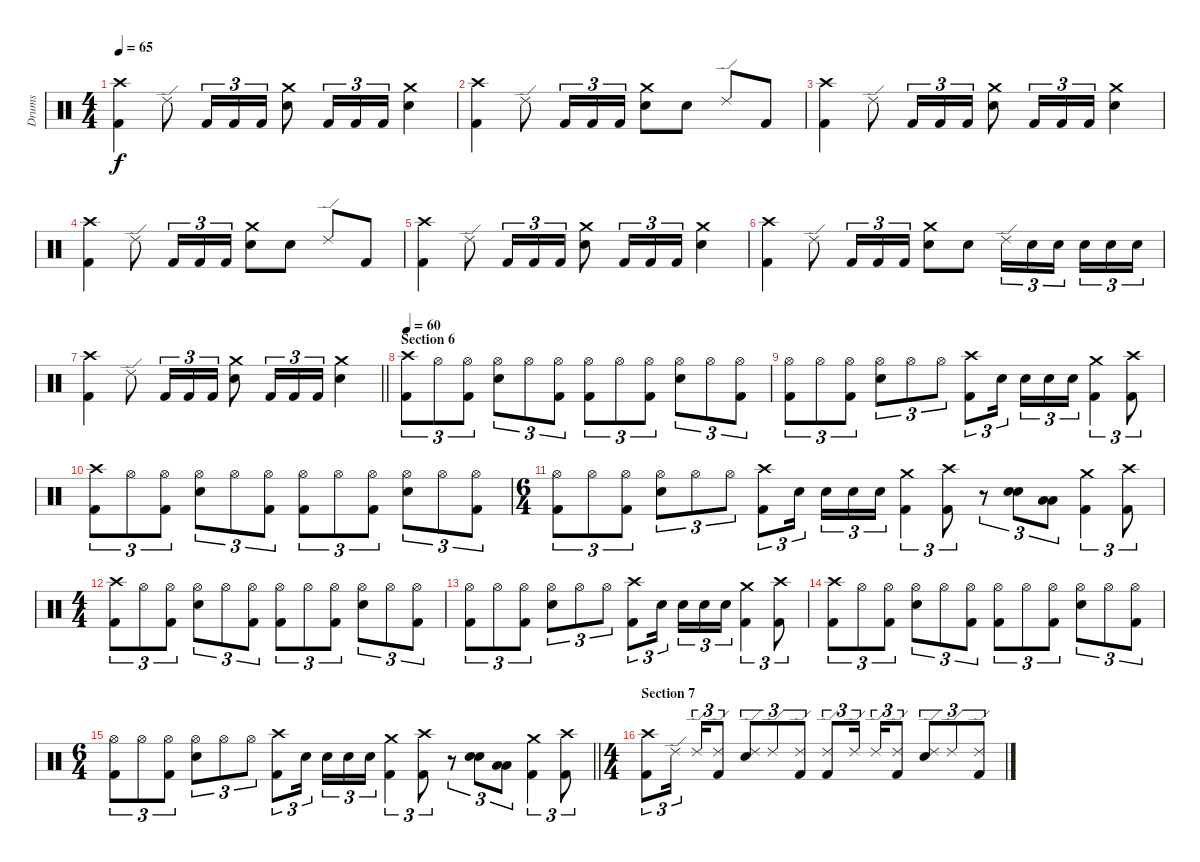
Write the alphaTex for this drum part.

\track ("Drums" "Drums") {instrument percussion}
\staff {score}
\articulation defaults
\ts (4 4)
\tempo 65
\clef neutral
\ks c
("Crash high (hit)" "Kick (hit) 2").4{dy f} "Ride (edge) 2".8 "Kick (hit) 2".16{tu (3 2)} "Kick (hit) 2".16{tu (3 2)} "Kick (hit) 2".16{tu (3 2)} ("Crash medium (hit)" "Electric Snare (hit)").8 "Kick (hit) 2".16{tu (3 2)} "Kick (hit) 2".16{tu (3 2)} "Kick (hit) 2".16{tu (3 2)} ("Crash medium (hit)" "Electric Snare (hit)").4 |
("Crash high (hit)" "Kick (hit) 2").4 "Ride (edge) 2".8 "Kick (hit) 2".16{tu (3 2)} "Kick (hit) 2".16{tu (3 2)} "Kick (hit) 2".16{tu (3 2)} ("Crash medium (hit)" "Electric Snare (hit)").8 "Electric Snare (hit)".8 "Ride (edge) 2".8 "Kick (hit) 2".8 |
("Crash high (hit)" "Kick (hit) 2").4 "Ride (edge) 2".8 "Kick (hit) 2".16{tu (3 2)} "Kick (hit) 2".16{tu (3 2)} "Kick (hit) 2".16{tu (3 2)} ("Crash medium (hit)" "Electric Snare (hit)").8 "Kick (hit) 2".16{tu (3 2)} "Kick (hit) 2".16{tu (3 2)} "Kick (hit) 2".16{tu (3 2)} ("Crash medium (hit)" "Electric Snare (hit)").4 |
("Crash high (hit)" "Kick (hit) 2").4 "Ride (edge) 2".8 "Kick (hit) 2".16{tu (3 2)} "Kick (hit) 2".16{tu (3 2)} "Kick (hit) 2".16{tu (3 2)} ("Crash medium (hit)" "Electric Snare (hit)").8 "Electric Snare (hit)".8 "Ride (edge) 2".8 "Kick (hit) 2".8 |
("Crash high (hit)" "Kick (hit) 2").4 "Ride (edge) 2".8 "Kick (hit) 2".16{tu (3 2)} "Kick (hit) 2".16{tu (3 2)} "Kick (hit) 2".16{tu (3 2)} ("Crash medium (hit)" "Electric Snare (hit)").8 "Kick (hit) 2".16{tu (3 2)} "Kick (hit) 2".16{tu (3 2)} "Kick (hit) 2".16{tu (3 2)} ("Crash medium (hit)" "Electric Snare (hit)").4 |
("Crash high (hit)" "Kick (hit) 2").4 "Ride (edge) 2".8 "Kick (hit) 2".16{tu (3 2)} "Kick (hit) 2".16{tu (3 2)} "Kick (hit) 2".16{tu (3 2)} ("Crash medium (hit)" "Electric Snare (hit)").8 "Electric Snare (hit)".8 "Ride (edge) 2".16{tu (3 2)} "Electric Snare (hit)".16{tu (3 2)} "Electric Snare (hit)".16{tu (3 2)} "Electric Snare (hit)".16{tu (3 2)} "Electric Snare (hit)".16{tu (3 2)} "Electric Snare (hit)".16{tu (3 2)} |
\barLineRight lightlight
("Crash high (hit)" "Kick (hit) 2").4 "Ride (edge) 2".8 "Kick (hit) 2".16{tu (3 2)} "Kick (hit) 2".16{tu (3 2)} "Kick (hit) 2".16{tu (3 2)} ("Crash medium (hit)" "Electric Snare (hit)").8 "Kick (hit) 2".16{tu (3 2)} "Kick (hit) 2".16{tu (3 2)} "Kick (hit) 2".16{tu (3 2)} ("Crash medium (hit)" "Electric Snare (hit)").4 |
\section ("" "Section 6")
\tempo 60
("Crash high (hit)" "Kick (hit) 2").8{tu (3 2)} "Hi-Hat (open)".8{tu (3 2)} ("Hi-Hat (open)" "Kick (hit) 2").8{tu (3 2)} ("Hi-Hat (open)" "Electric Snare (hit)").8{tu (3 2)} "Hi-Hat (open)".8{tu (3 2)} ("Hi-Hat (open)" "Kick (hit) 2").8{tu (3 2)} ("Hi-Hat (open)" "Kick (hit) 2").8{tu (3 2)} "Hi-Hat (open)".8{tu (3 2)} ("Hi-Hat (open)" "Kick (hit) 2").8{tu (3 2)} ("Hi-Hat (open)" "Electric Snare (hit)").8{tu (3 2)} "Hi-Hat (open)".8{tu (3 2)} ("Hi-Hat (open)" "Kick (hit) 2").8{tu (3 2)} |
("Hi-Hat (open)" "Kick (hit) 2").8{tu (3 2)} "Hi-Hat (open)".8{tu (3 2)} ("Hi-Hat (open)" "Kick (hit) 2").8{tu (3 2)} ("Hi-Hat (open)" "Electric Snare (hit)").8{tu (3 2)} "Hi-Hat (open)".8{tu (3 2)} "Hi-Hat (open)".8{tu (3 2)} ("Crash high (hit)" "Kick (hit) 2").8{tu (3 2)} "Electric Snare (hit)".16{tu (3 2)} "Electric Snare (hit)".16{tu (3 2)} "Electric Snare (hit)".16{tu (3 2)} "Electric Snare (hit)".16{tu (3 2)} ("Crash medium (hit)" "Kick (hit) 2").4{tu (3 2)} ("Crash high (hit)" "Kick (hit) 2").8{tu (3 2)} |
("Crash high (hit)" "Kick (hit) 2").8{tu (3 2)} "Hi-Hat (open)".8{tu (3 2)} ("Hi-Hat (open)" "Kick (hit) 2").8{tu (3 2)} ("Hi-Hat (open)" "Electric Snare (hit)").8{tu (3 2)} "Hi-Hat (open)".8{tu (3 2)} ("Hi-Hat (open)" "Kick (hit) 2").8{tu (3 2)} ("Hi-Hat (open)" "Kick (hit) 2").8{tu (3 2)} "Hi-Hat (open)".8{tu (3 2)} ("Hi-Hat (open)" "Kick (hit) 2").8{tu (3 2)} ("Hi-Hat (open)" "Electric Snare (hit)").8{tu (3 2)} "Hi-Hat (open)".8{tu (3 2)} ("Hi-Hat (open)" "Kick (hit) 2").8{tu (3 2)} |
\ts (6 4)
("Hi-Hat (open)" "Kick (hit) 2").8{tu (3 2)} "Hi-Hat (open)".8{tu (3 2)} ("Hi-Hat (open)" "Kick (hit) 2").8{tu (3 2)} ("Hi-Hat (open)" "Electric Snare (hit)").8{tu (3 2)} "Hi-Hat (open)".8{tu (3 2)} "Hi-Hat (open)".8{tu (3 2)} ("Crash high (hit)" "Kick (hit) 2").8{tu (3 2)} "Electric Snare (hit)".16{tu (3 2)} "Electric Snare (hit)".16{tu (3 2)} "Electric Snare (hit)".16{tu (3 2)} "Electric Snare (hit)".16{tu (3 2)} ("Crash medium (hit)" "Kick (hit) 2").4{tu (3 2)} ("Crash high (hit)" "Kick (hit) 2").8{tu (3 2)} r.8{tu (3 2)} ("Electric Snare (hit)" "Electric Snare (hit)").8{tu (3 2) bu 60} ("Low Tom (hit)" "Low Tom (hit)").8{tu (3 2) bu 60} ("Crash medium (hit)" "Kick (hit) 2").4{tu (3 2)} ("Crash high (hit)" "Kick (hit) 2").8{tu (3 2)} |
\ts (4 4)
("Crash high (hit)" "Kick (hit) 2").8{tu (3 2)} "Hi-Hat (open)".8{tu (3 2)} ("Hi-Hat (open)" "Kick (hit) 2").8{tu (3 2)} ("Hi-Hat (open)" "Electric Snare (hit)").8{tu (3 2)} "Hi-Hat (open)".8{tu (3 2)} ("Hi-Hat (open)" "Kick (hit) 2").8{tu (3 2)} ("Hi-Hat (open)" "Kick (hit) 2").8{tu (3 2)} "Hi-Hat (open)".8{tu (3 2)} ("Hi-Hat (open)" "Kick (hit) 2").8{tu (3 2)} ("Hi-Hat (open)" "Electric Snare (hit)").8{tu (3 2)} "Hi-Hat (open)".8{tu (3 2)} ("Hi-Hat (open)" "Kick (hit) 2").8{tu (3 2)} |
("Hi-Hat (open)" "Kick (hit) 2").8{tu (3 2)} "Hi-Hat (open)".8{tu (3 2)} ("Hi-Hat (open)" "Kick (hit) 2").8{tu (3 2)} ("Hi-Hat (open)" "Electric Snare (hit)").8{tu (3 2)} "Hi-Hat (open)".8{tu (3 2)} "Hi-Hat (open)".8{tu (3 2)} ("Crash high (hit)" "Kick (hit) 2").8{tu (3 2)} "Electric Snare (hit)".16{tu (3 2)} "Electric Snare (hit)".16{tu (3 2)} "Electric Snare (hit)".16{tu (3 2)} "Electric Snare (hit)".16{tu (3 2)} ("Crash medium (hit)" "Kick (hit) 2").4{tu (3 2)} ("Crash high (hit)" "Kick (hit) 2").8{tu (3 2)} |
("Crash high (hit)" "Kick (hit) 2").8{tu (3 2)} "Hi-Hat (open)".8{tu (3 2)} ("Hi-Hat (open)" "Kick (hit) 2").8{tu (3 2)} ("Hi-Hat (open)" "Electric Snare (hit)").8{tu (3 2)} "Hi-Hat (open)".8{tu (3 2)} ("Hi-Hat (open)" "Kick (hit) 2").8{tu (3 2)} ("Hi-Hat (open)" "Kick (hit) 2").8{tu (3 2)} "Hi-Hat (open)".8{tu (3 2)} ("Hi-Hat (open)" "Kick (hit) 2").8{tu (3 2)} ("Hi-Hat (open)" "Electric Snare (hit)").8{tu (3 2)} "Hi-Hat (open)".8{tu (3 2)} ("Hi-Hat (open)" "Kick (hit) 2").8{tu (3 2)} |
\ts (6 4)
\barLineRight lightlight
("Hi-Hat (open)" "Kick (hit) 2").8{tu (3 2)} "Hi-Hat (open)".8{tu (3 2)} ("Hi-Hat (open)" "Kick (hit) 2").8{tu (3 2)} ("Hi-Hat (open)" "Electric Snare (hit)").8{tu (3 2)} "Hi-Hat (open)".8{tu (3 2)} "Hi-Hat (open)".8{tu (3 2)} ("Crash high (hit)" "Kick (hit) 2").8{tu (3 2)} "Electric Snare (hit)".16{tu (3 2)} "Electric Snare (hit)".16{tu (3 2)} "Electric Snare (hit)".16{tu (3 2)} "Electric Snare (hit)".16{tu (3 2)} ("Crash medium (hit)" "Kick (hit) 2").4{tu (3 2)} ("Crash high (hit)" "Kick (hit) 2").8{tu (3 2)} r.8{tu (3 2)} ("Electric Snare (hit)" "Electric Snare (hit)").8{tu (3 2) bu 60} ("Low Tom (hit)" "Low Tom (hit)").8{tu (3 2) bu 60} ("Crash medium (hit)" "Kick (hit) 2").4{tu (3 2)} ("Crash high (hit)" "Kick (hit) 2").8{tu (3 2)} |
\ts (4 4)
\section ("" "Section 7")
("Crash high (hit)" "Kick (hit) 2").8{tu (3 2)} "Ride (edge) 2".16{tu (3 2)} "Ride (edge) 2".16{tu (3 2)} ("Ride (edge) 2" "Kick (hit) 2").8{tu (3 2)} ("Ride (edge) 2" "Electric Snare (hit)").8{tu (3 2)} "Ride (edge) 2".8{tu (3 2)} ("Ride (edge) 2" "Kick (hit) 2").8{tu (3 2)} ("Ride (edge) 2" "Kick (hit) 2").8{tu (3 2)} "Ride (edge) 2".16{tu (3 2)} "Ride (edge) 2".16{tu (3 2)} ("Ride (edge) 2" "Kick (hit) 2").8{tu (3 2)} ("Ride (edge) 2" "Electric Snare (hit)").8{tu (3 2)} "Ride (edge) 2".8{tu (3 2)} ("Ride (edge) 2" "Kick (hit) 2").8{tu (3 2)}
